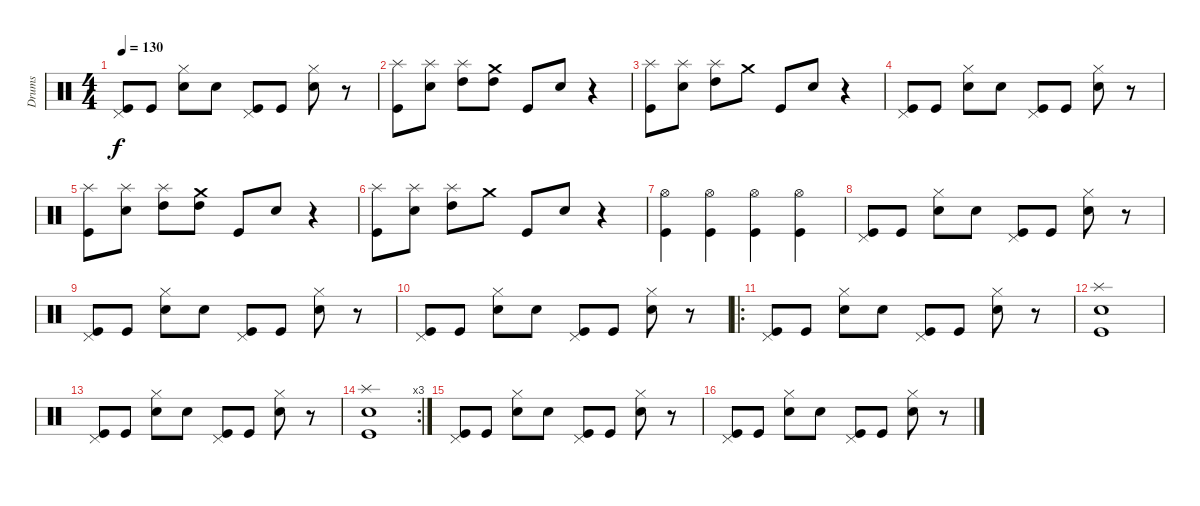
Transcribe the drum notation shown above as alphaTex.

\track ("Drums" "Drums") {instrument percussion}
\staff {score}
\articulation defaults
\ts (4 4)
\tempo 130
\clef neutral
\ks c
("Pedal Hi-Hat (hit)" "Kick (hit)").8{dy f} "Kick (hit)".8 ("Hi-Hat (closed)" "Snare (hit) 2").8 "Snare (hit) 2".8 ("Pedal Hi-Hat (hit)" "Kick (hit)").8 "Kick (hit)".8 ("Hi-Hat (closed)" "Snare (hit) 2").8 r.8 |
("Splash (hit)" "Kick (hit)").8 ("Splash (hit)" "Snare (hit) 2").8 ("Splash (hit)" "High Tom (hit)").8 ("Crash medium (hit)" "High Tom (hit)").8 "Kick (hit)".8 "Snare (hit) 2".8 r.4 |
("Splash (hit)" "Kick (hit)").8 ("Splash (hit)" "Snare (hit) 2").8 ("Splash (hit)" "High Tom (hit)").8 "Crash medium (hit)".8 "Kick (hit)".8 "Snare (hit) 2".8 r.4 |
("Pedal Hi-Hat (hit)" "Kick (hit)").8 "Kick (hit)".8 ("Hi-Hat (closed)" "Snare (hit) 2").8 "Snare (hit) 2".8 ("Pedal Hi-Hat (hit)" "Kick (hit)").8 "Kick (hit)".8 ("Hi-Hat (closed)" "Snare (hit) 2").8 r.8 |
("Splash (hit)" "Kick (hit)").8 ("Splash (hit)" "Snare (hit) 2").8 ("Splash (hit)" "High Tom (hit)").8 ("Crash medium (hit)" "High Tom (hit)").8 "Kick (hit)".8 "Snare (hit) 2".8 r.4 |
("Splash (hit)" "Kick (hit)").8 ("Splash (hit)" "Snare (hit) 2").8 ("Splash (hit)" "High Tom (hit)").8 "Crash medium (hit)".8 "Kick (hit)".8 "Snare (hit) 2".8 r.4 |
("Hi-Hat (open)" "Kick (hit)").4 ("Hi-Hat (open)" "Kick (hit)").4 ("Hi-Hat (open)" "Kick (hit)").4 ("Hi-Hat (open)" "Kick (hit)").4 |
("Pedal Hi-Hat (hit)" "Kick (hit)").8 "Kick (hit)".8 ("Hi-Hat (closed)" "Snare (hit) 2").8 "Snare (hit) 2".8 ("Pedal Hi-Hat (hit)" "Kick (hit)").8 "Kick (hit)".8 ("Hi-Hat (closed)" "Snare (hit) 2").8 r.8 |
("Pedal Hi-Hat (hit)" "Kick (hit)").8 "Kick (hit)".8 ("Hi-Hat (closed)" "Snare (hit) 2").8 "Snare (hit) 2".8 ("Pedal Hi-Hat (hit)" "Kick (hit)").8 "Kick (hit)".8 ("Hi-Hat (closed)" "Snare (hit) 2").8 r.8 |
("Pedal Hi-Hat (hit)" "Kick (hit)").8 "Kick (hit)".8 ("Hi-Hat (closed)" "Snare (hit) 2").8 "Snare (hit) 2".8 ("Pedal Hi-Hat (hit)" "Kick (hit)").8 "Kick (hit)".8 ("Hi-Hat (closed)" "Snare (hit) 2").8 r.8 |
\ro
("Pedal Hi-Hat (hit)" "Kick (hit)").8 "Kick (hit)".8 ("Hi-Hat (closed)" "Snare (hit) 2").8 "Snare (hit) 2".8 ("Pedal Hi-Hat (hit)" "Kick (hit)").8 "Kick (hit)".8 ("Hi-Hat (closed)" "Snare (hit) 2").8 r.8 |
("Splash (hit)" "Snare (hit) 2" "Kick (hit)").1 |
("Pedal Hi-Hat (hit)" "Kick (hit)").8 "Kick (hit)".8 ("Hi-Hat (closed)" "Snare (hit) 2").8 "Snare (hit) 2".8 ("Pedal Hi-Hat (hit)" "Kick (hit)").8 "Kick (hit)".8 ("Hi-Hat (closed)" "Snare (hit) 2").8 r.8 |
\rc 3
("Splash (hit)" "Snare (hit) 2" "Kick (hit)").1 |
("Pedal Hi-Hat (hit)" "Kick (hit)").8 "Kick (hit)".8 ("Hi-Hat (closed)" "Snare (hit) 2").8 "Snare (hit) 2".8 ("Pedal Hi-Hat (hit)" "Kick (hit)").8 "Kick (hit)".8 ("Hi-Hat (closed)" "Snare (hit) 2").8 r.8 |
("Pedal Hi-Hat (hit)" "Kick (hit)").8 "Kick (hit)".8 ("Hi-Hat (closed)" "Snare (hit) 2").8 "Snare (hit) 2".8 ("Pedal Hi-Hat (hit)" "Kick (hit)").8 "Kick (hit)".8 ("Hi-Hat (closed)" "Snare (hit) 2").8 r.8
